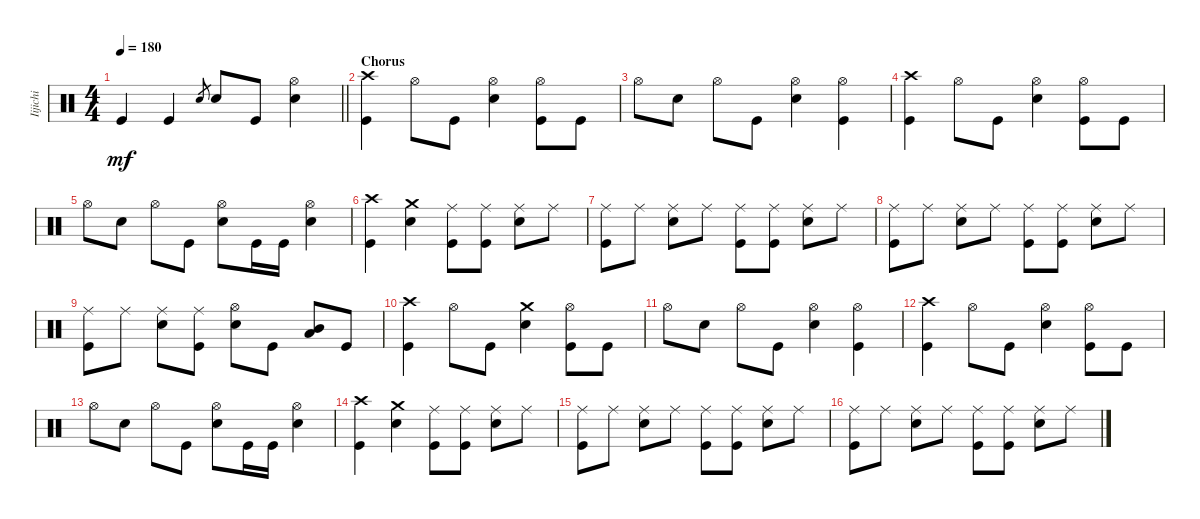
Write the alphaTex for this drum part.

\track ("Iijichi" "Iijichi") {instrument percussion}
\staff {score}
\articulation defaults
\ts (4 4)
\tempo 180
\clef neutral
\barLineRight lightlight
\ks c "Kick (hit)".4{dy mf} "Kick (hit)".4 "Electric Snare (hit)".8{gr} "Electric Snare (hit)".8 "Kick (hit)".8
("Electric Snare (hit)" "Hi-Hat (open)").4 |
\section ("" "Chorus")
("Crash high (hit)" "Kick (hit)").4 "Hi-Hat (open)".8 "Kick (hit)".8 ("Hi-Hat (open)" "Electric Snare (hit)").4 ("Hi-Hat (open)" "Kick (hit)").8 "Kick (hit)".8 |
"Hi-Hat (open)".8 "Electric Snare (hit)".8 "Hi-Hat (open)".8 "Kick (hit)".8 ("Hi-Hat (open)" "Electric Snare (hit)").4 ("Hi-Hat (open)" "Kick (hit)").4 |
("Crash high (hit)" "Kick (hit)").4 "Hi-Hat (open)".8 "Kick (hit)".8 ("Hi-Hat (open)" "Electric Snare (hit)").4 ("Hi-Hat (open)" "Kick (hit)").8 "Kick (hit)".8 |
"Hi-Hat (open)".8 "Electric Snare (hit)".8 "Hi-Hat (open)".8 "Kick (hit)".8 ("Hi-Hat (open)" "Electric Snare (hit)").8 "Kick (hit)".16 "Kick (hit)".16 ("Electric Snare (hit)" "Hi-Hat (open)").4 |
("Kick (hit)" "Crash high (hit)").4 ("Crash medium (hit)" "Electric Snare (hit)").4 ("Kick (hit)" "Ride (middle)").8 ("Ride (middle)" "Kick (hit)").8 ("Ride (middle)" "Electric Snare (hit)").8 "Ride (middle)".8 |
("Kick (hit)" "Ride (middle)").8 "Ride (middle)".8 ("Electric Snare (hit)" "Ride (middle)").8 "Ride (middle)".8 ("Kick (hit)" "Ride (middle)").8 ("Ride (middle)" "Kick (hit)").8 ("Ride (middle)" "Electric Snare (hit)").8 "Ride (middle)".8 |
("Kick (hit)" "Ride (middle)").8 "Ride (middle)".8 ("Electric Snare (hit)" "Ride (middle)").8 "Ride (middle)".8 ("Kick (hit)" "Ride (middle)").8 ("Ride (middle)" "Kick (hit)").8 ("Ride (middle)" "Electric Snare (hit)").8 "Ride (middle)".8 |
("Kick (hit)" "Ride (middle)").8 "Ride (middle)".8 ("Electric Snare (hit)" "Ride (middle)").8 ("Ride (middle)" "Kick (hit)").8 ("Electric Snare (hit)" "Hi-Hat (open)").8 "Kick (hit)".8 ("Mid Tom (hit)" "Low Floor Tom (hit)").8 "Kick (hit)".8 |
("Crash high (hit)" "Kick (hit)").4 "Hi-Hat (open)".8 "Kick (hit)".8 ("Crash medium (hit)" "Electric Snare (hit)").4 ("Hi-Hat (open)" "Kick (hit)").8 "Kick (hit)".8 |
"Hi-Hat (open)".8 "Electric Snare (hit)".8 "Hi-Hat (open)".8 "Kick (hit)".8 ("Hi-Hat (open)" "Electric Snare (hit)").4 ("Hi-Hat (open)" "Kick (hit)").4 |
("Crash high (hit)" "Kick (hit)").4 "Hi-Hat (open)".8 "Kick (hit)".8 ("Hi-Hat (open)" "Electric Snare (hit)").4 ("Hi-Hat (open)" "Kick (hit)").8 "Kick (hit)".8 |
"Hi-Hat (open)".8 "Electric Snare (hit)".8 "Hi-Hat (open)".8 "Kick (hit)".8 ("Hi-Hat (open)" "Electric Snare (hit)").8 "Kick (hit)".16 "Kick (hit)".16 ("Electric Snare (hit)" "Hi-Hat (open)").4 |
("Kick (hit)" "Crash high (hit)").4 ("Crash medium (hit)" "Electric Snare (hit)").4 ("Kick (hit)" "Ride (middle)").8 ("Ride (middle)" "Kick (hit)").8 ("Ride (middle)" "Electric Snare (hit)").8 "Ride (middle)".8 |
("Kick (hit)" "Ride (middle)").8 "Ride (middle)".8 ("Electric Snare (hit)" "Ride (middle)").8 "Ride (middle)".8 ("Kick (hit)" "Ride (middle)").8 ("Ride (middle)" "Kick (hit)").8 ("Ride (middle)" "Electric Snare (hit)").8 "Ride (middle)".8 |
("Kick (hit)" "Ride (middle)").8 "Ride (middle)".8 ("Electric Snare (hit)" "Ride (middle)").8 "Ride (middle)".8 ("Kick (hit)" "Ride (middle)").8 ("Ride (middle)" "Kick (hit)").8 ("Ride (middle)" "Electric Snare (hit)").8 "Ride (middle)".8
